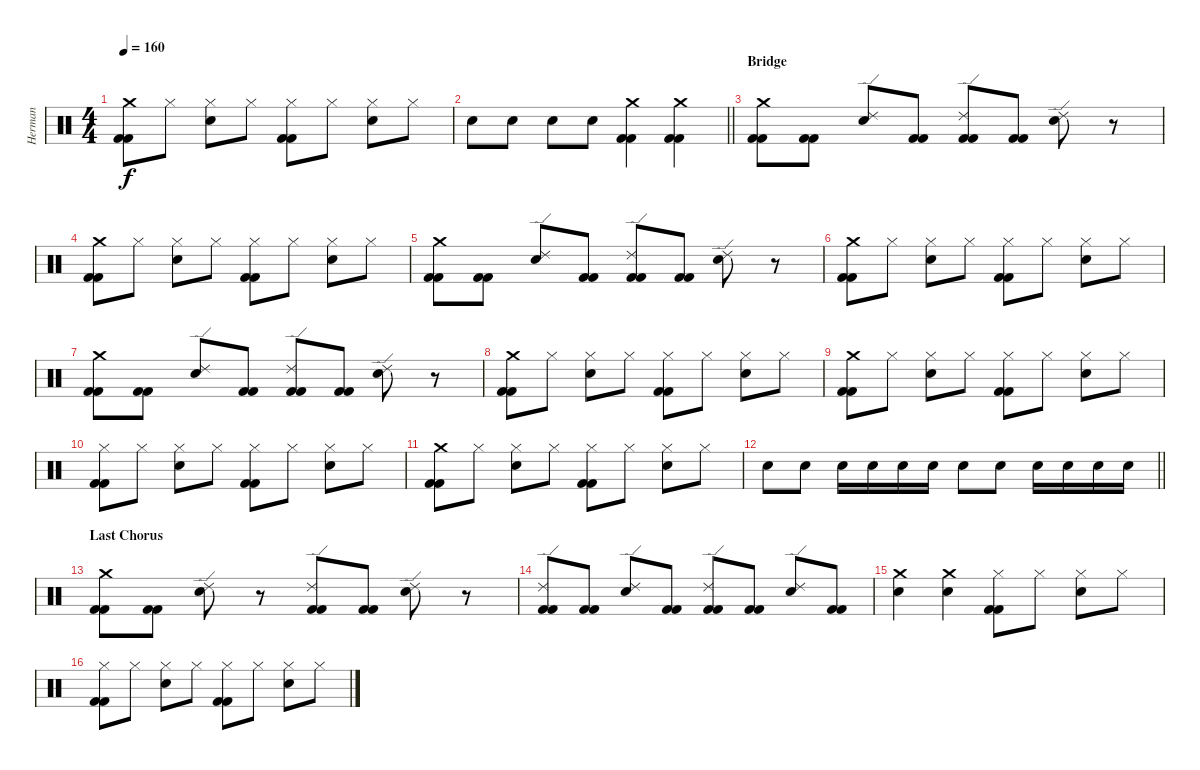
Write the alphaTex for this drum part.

\track ("Herman" "Herman") {instrument percussion}
\staff {score}
\articulation defaults
\ts (4 4)
\tempo 160
\clef neutral
\ks c
("Crash medium (hit)" "Kick (hit) 2" "Kick (hit) 2").8{dy f} "Hi-Hat (closed)".8 ("Electric Snare (hit)" "Hi-Hat (closed)").8 "Hi-Hat (closed)".8 ("Hi-Hat (closed)" "Kick (hit) 2" "Kick (hit) 2").8 "Hi-Hat (closed)".8 ("Electric Snare (hit)" "Hi-Hat (closed)").8 "Hi-Hat (closed)".8 |
\barLineRight lightlight "Electric Snare (hit)".8 "Electric Snare (hit)".8 "Electric Snare (hit)".8 "Electric Snare (hit)".8
("Kick (hit) 2" "Kick (hit) 2" "Crash medium (hit)").4 ("Crash medium (hit)" "Kick (hit) 2" "Kick (hit) 2").4 |
\section ("" "Bridge")
("Crash medium (hit)" "Kick (hit) 2" "Kick (hit) 2").8 ("Kick (hit) 2" "Kick (hit) 2").8 ("Ride (edge) 2" "Electric Snare (hit)").8 ("Kick (hit) 2" "Kick (hit) 2").8 ("Ride (edge) 2" "Kick (hit) 2" "Kick (hit) 2").8 ("Kick (hit) 2" "Kick (hit) 2").8 ("Ride (edge) 2" "Electric Snare (hit)").8 r.8 |
("Kick (hit) 2" "Kick (hit) 2" "Crash medium (hit)").8 "Hi-Hat (closed)".8 ("Hi-Hat (closed)" "Electric Snare (hit)").8 "Hi-Hat (closed)".8 ("Kick (hit) 2" "Kick (hit) 2" "Hi-Hat (closed)").8 "Hi-Hat (closed)".8 ("Hi-Hat (closed)" "Electric Snare (hit)").8 "Hi-Hat (closed)".8 |
("Crash medium (hit)" "Kick (hit) 2" "Kick (hit) 2").8 ("Kick (hit) 2" "Kick (hit) 2").8 ("Ride (edge) 2" "Electric Snare (hit)").8 ("Kick (hit) 2" "Kick (hit) 2").8 ("Ride (edge) 2" "Kick (hit) 2" "Kick (hit) 2").8 ("Kick (hit) 2" "Kick (hit) 2").8 ("Ride (edge) 2" "Electric Snare (hit)").8 r.8 |
("Kick (hit) 2" "Kick (hit) 2" "Crash medium (hit)").8 "Hi-Hat (closed)".8 ("Hi-Hat (closed)" "Electric Snare (hit)").8 "Hi-Hat (closed)".8 ("Kick (hit) 2" "Kick (hit) 2" "Hi-Hat (closed)").8 "Hi-Hat (closed)".8 ("Hi-Hat (closed)" "Electric Snare (hit)").8 "Hi-Hat (closed)".8 |
("Crash medium (hit)" "Kick (hit) 2" "Kick (hit) 2").8 ("Kick (hit) 2" "Kick (hit) 2").8 ("Ride (edge) 2" "Electric Snare (hit)").8 ("Kick (hit) 2" "Kick (hit) 2").8 ("Ride (edge) 2" "Kick (hit) 2" "Kick (hit) 2").8 ("Kick (hit) 2" "Kick (hit) 2").8 ("Ride (edge) 2" "Electric Snare (hit)").8 r.8 |
("Kick (hit) 2" "Kick (hit) 2" "Crash medium (hit)").8 "Hi-Hat (closed)".8 ("Hi-Hat (closed)" "Electric Snare (hit)").8 "Hi-Hat (closed)".8 ("Kick (hit) 2" "Kick (hit) 2" "Hi-Hat (closed)").8 "Hi-Hat (closed)".8 ("Hi-Hat (closed)" "Electric Snare (hit)").8 "Hi-Hat (closed)".8 |
("Crash medium (hit)" "Kick (hit) 2" "Kick (hit) 2").8 "Hi-Hat (closed)".8 ("Electric Snare (hit)" "Hi-Hat (closed)").8 "Hi-Hat (closed)".8 ("Hi-Hat (closed)" "Kick (hit) 2" "Kick (hit) 2").8 "Hi-Hat (closed)".8 ("Electric Snare (hit)" "Hi-Hat (closed)").8 "Hi-Hat (closed)".8 |
("Hi-Hat (closed)" "Kick (hit) 2" "Kick (hit) 2").8 "Hi-Hat (closed)".8 ("Electric Snare (hit)" "Hi-Hat (closed)").8 "Hi-Hat (closed)".8 ("Hi-Hat (closed)" "Kick (hit) 2" "Kick (hit) 2").8 "Hi-Hat (closed)".8 ("Electric Snare (hit)" "Hi-Hat (closed)").8 "Hi-Hat (closed)".8 |
("Crash medium (hit)" "Kick (hit) 2" "Kick (hit) 2").8 "Hi-Hat (closed)".8 ("Electric Snare (hit)" "Hi-Hat (closed)").8 "Hi-Hat (closed)".8 ("Hi-Hat (closed)" "Kick (hit) 2" "Kick (hit) 2").8 "Hi-Hat (closed)".8 ("Electric Snare (hit)" "Hi-Hat (closed)").8 "Hi-Hat (closed)".8 |
\barLineRight lightlight "Electric Snare (hit)".8 "Electric Snare (hit)".8 "Electric Snare (hit)".16 "Electric Snare (hit)".16 "Electric Snare (hit)".16 "Electric Snare (hit)".16 "Electric Snare (hit)".8 "Electric Snare (hit)".8 "Electric Snare (hit)".16 "Electric Snare (hit)".16 "Electric Snare (hit)".16 "Electric Snare (hit)".16
|
\section ("" "Last Chorus")
("Crash medium (hit)" "Kick (hit) 2" "Kick (hit) 2").8 ("Kick (hit) 2" "Kick (hit) 2").8 ("Electric Snare (hit)" "Ride (edge) 2").8 r.8 ("Ride (edge) 2" "Kick (hit) 2" "Kick (hit) 2").8 ("Kick (hit) 2" "Kick (hit) 2").8 ("Electric Snare (hit)" "Ride (edge) 2").8 r.8 |
("Kick (hit) 2" "Kick (hit) 2" "Ride (edge) 2").8 ("Kick (hit) 2" "Kick (hit) 2").8 ("Electric Snare (hit)" "Ride (edge) 2").8 ("Kick (hit) 2" "Kick (hit) 2").8 ("Kick (hit) 2" "Kick (hit) 2" "Ride (edge) 2").8 ("Kick (hit) 2" "Kick (hit) 2").8 ("Electric Snare (hit)" "Ride (edge) 2").8 ("Kick (hit) 2" "Kick (hit) 2").8 |
("Crash medium (hit)" "Electric Snare (hit)").4 ("Crash medium (hit)" "Electric Snare (hit)").4 ("Hi-Hat (closed)" "Kick (hit) 2" "Kick (hit) 2").8 "Hi-Hat (closed)".8 ("Electric Snare (hit)" "Hi-Hat (closed)").8 "Hi-Hat (closed)".8 |
("Kick (hit) 2" "Kick (hit) 2" "Hi-Hat (closed)").8 "Hi-Hat (closed)".8 ("Hi-Hat (closed)" "Electric Snare (hit)").8 "Hi-Hat (closed)".8 ("Hi-Hat (closed)" "Kick (hit) 2" "Kick (hit) 2").8 "Hi-Hat (closed)".8 ("Electric Snare (hit)" "Hi-Hat (closed)").8 "Hi-Hat (closed)".8
